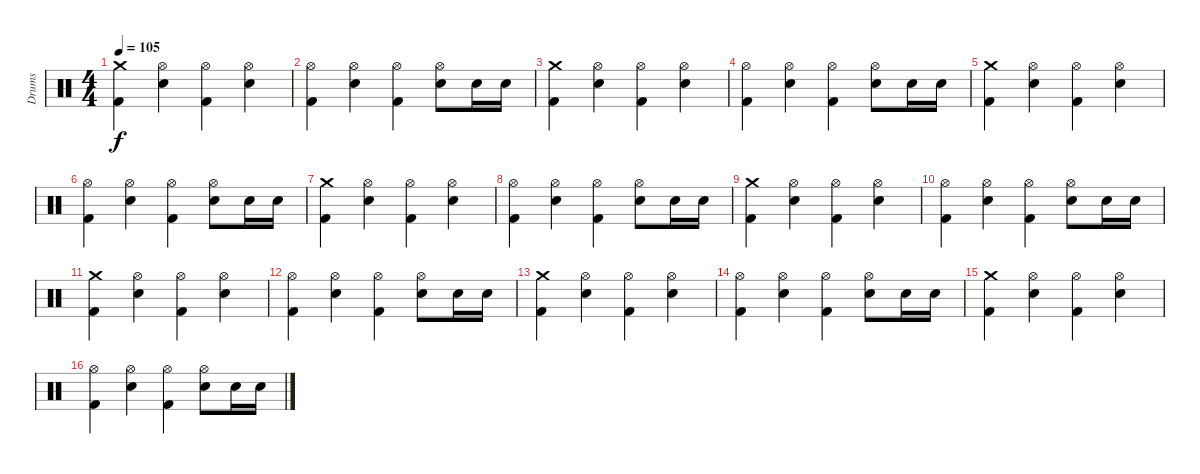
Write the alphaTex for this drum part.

\track ("Drums" "Drums") {instrument percussion}
\staff {score}
\articulation defaults
\ts (4 4)
\tempo 105
\clef neutral
\ks c
("Crash medium (hit)" "Kick (hit) 2").4{dy f} ("Hi-Hat (open)" "Electric Snare (hit)").4 ("Hi-Hat (open)" "Kick (hit) 2").4 ("Hi-Hat (open)" "Electric Snare (hit)").4 |
("Hi-Hat (open)" "Kick (hit) 2").4 ("Hi-Hat (open)" "Electric Snare (hit)").4 ("Hi-Hat (open)" "Kick (hit) 2").4 ("Hi-Hat (open)" "Electric Snare (hit)").8 "Electric Snare (hit)".16 "Electric Snare (hit)".16 |
("Crash medium (hit)" "Kick (hit) 2").4 ("Hi-Hat (open)" "Electric Snare (hit)").4 ("Hi-Hat (open)" "Kick (hit) 2").4 ("Hi-Hat (open)" "Electric Snare (hit)").4 |
("Hi-Hat (open)" "Kick (hit) 2").4 ("Hi-Hat (open)" "Electric Snare (hit)").4 ("Hi-Hat (open)" "Kick (hit) 2").4 ("Hi-Hat (open)" "Electric Snare (hit)").8 "Electric Snare (hit)".16 "Electric Snare (hit)".16 |
("Crash medium (hit)" "Kick (hit) 2").4 ("Hi-Hat (open)" "Electric Snare (hit)").4 ("Hi-Hat (open)" "Kick (hit) 2").4 ("Hi-Hat (open)" "Electric Snare (hit)").4 |
("Hi-Hat (open)" "Kick (hit) 2").4 ("Hi-Hat (open)" "Electric Snare (hit)").4 ("Hi-Hat (open)" "Kick (hit) 2").4 ("Hi-Hat (open)" "Electric Snare (hit)").8 "Electric Snare (hit)".16 "Electric Snare (hit)".16 |
("Crash medium (hit)" "Kick (hit) 2").4 ("Hi-Hat (open)" "Electric Snare (hit)").4 ("Hi-Hat (open)" "Kick (hit) 2").4 ("Hi-Hat (open)" "Electric Snare (hit)").4 |
("Hi-Hat (open)" "Kick (hit) 2").4 ("Hi-Hat (open)" "Electric Snare (hit)").4 ("Hi-Hat (open)" "Kick (hit) 2").4 ("Hi-Hat (open)" "Electric Snare (hit)").8 "Electric Snare (hit)".16 "Electric Snare (hit)".16 |
("Crash medium (hit)" "Kick (hit) 2").4 ("Hi-Hat (open)" "Electric Snare (hit)").4 ("Hi-Hat (open)" "Kick (hit) 2").4 ("Hi-Hat (open)" "Electric Snare (hit)").4 |
("Hi-Hat (open)" "Kick (hit) 2").4 ("Hi-Hat (open)" "Electric Snare (hit)").4 ("Hi-Hat (open)" "Kick (hit) 2").4 ("Hi-Hat (open)" "Electric Snare (hit)").8 "Electric Snare (hit)".16 "Electric Snare (hit)".16 |
("Crash medium (hit)" "Kick (hit) 2").4 ("Hi-Hat (open)" "Electric Snare (hit)").4 ("Hi-Hat (open)" "Kick (hit) 2").4 ("Hi-Hat (open)" "Electric Snare (hit)").4 |
("Hi-Hat (open)" "Kick (hit) 2").4 ("Hi-Hat (open)" "Electric Snare (hit)").4 ("Hi-Hat (open)" "Kick (hit) 2").4 ("Hi-Hat (open)" "Electric Snare (hit)").8 "Electric Snare (hit)".16 "Electric Snare (hit)".16 |
("Crash medium (hit)" "Kick (hit) 2").4 ("Hi-Hat (open)" "Electric Snare (hit)").4 ("Hi-Hat (open)" "Kick (hit) 2").4 ("Hi-Hat (open)" "Electric Snare (hit)").4 |
("Hi-Hat (open)" "Kick (hit) 2").4 ("Hi-Hat (open)" "Electric Snare (hit)").4 ("Hi-Hat (open)" "Kick (hit) 2").4 ("Hi-Hat (open)" "Electric Snare (hit)").8 "Electric Snare (hit)".16 "Electric Snare (hit)".16 |
("Crash medium (hit)" "Kick (hit) 2").4 ("Hi-Hat (open)" "Electric Snare (hit)").4 ("Hi-Hat (open)" "Kick (hit) 2").4 ("Hi-Hat (open)" "Electric Snare (hit)").4 |
("Hi-Hat (open)" "Kick (hit) 2").4 ("Hi-Hat (open)" "Electric Snare (hit)").4 ("Hi-Hat (open)" "Kick (hit) 2").4 ("Hi-Hat (open)" "Electric Snare (hit)").8 "Electric Snare (hit)".16 "Electric Snare (hit)".16
